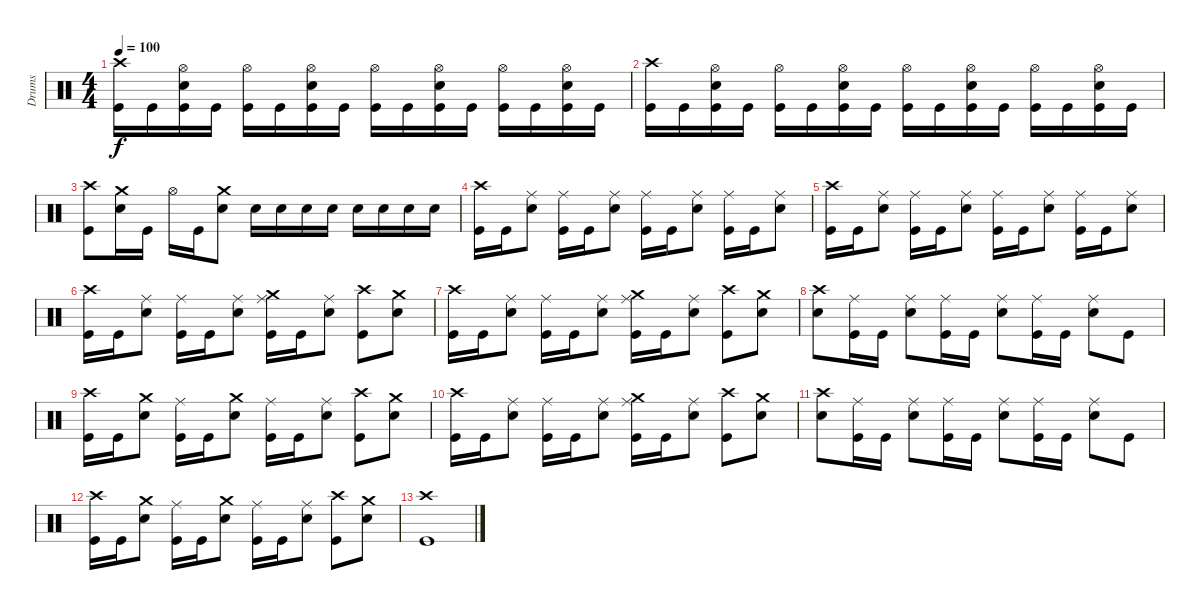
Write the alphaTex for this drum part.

\track ("Drums" "Drums") {instrument percussion}
\staff {score}
\articulation defaults
\ts (4 4)
\tempo 100
\clef neutral
\ks c
("Crash high (hit)" "Kick (hit)").16{dy f} "Kick (hit)".16 ("Hi-Hat (open)" "Electric Snare (hit)" "Kick (hit)").16 "Kick (hit)".16 ("Hi-Hat (open)" "Kick (hit)").16 "Kick (hit)".16 ("Hi-Hat (open)" "Electric Snare (hit)" "Kick (hit)").16 "Kick (hit)".16 ("Hi-Hat (open)" "Kick (hit)").16 "Kick (hit)".16 ("Hi-Hat (open)" "Electric Snare (hit)" "Kick (hit)").16 "Kick (hit)".16 ("Hi-Hat (open)" "Kick (hit)").16 "Kick (hit)".16 ("Hi-Hat (open)" "Electric Snare (hit)" "Kick (hit)").16 "Kick (hit)".16 |
("Crash high (hit)" "Kick (hit)").16 "Kick (hit)".16 ("Hi-Hat (open)" "Electric Snare (hit)" "Kick (hit)").16 "Kick (hit)".16 ("Hi-Hat (open)" "Kick (hit)").16 "Kick (hit)".16 ("Hi-Hat (open)" "Electric Snare (hit)" "Kick (hit)").16 "Kick (hit)".16 ("Hi-Hat (open)" "Kick (hit)").16 "Kick (hit)".16 ("Hi-Hat (open)" "Electric Snare (hit)" "Kick (hit)").16 "Kick (hit)".16 ("Hi-Hat (open)" "Kick (hit)").16 "Kick (hit)".16 ("Hi-Hat (open)" "Electric Snare (hit)" "Kick (hit)").16 "Kick (hit)".16 |
("Crash high (hit)" "Kick (hit)").8 ("Crash medium (hit)" "Electric Snare (hit)").16 "Kick (hit)".16 "Hi-Hat (open)".16 "Kick (hit)".16 ("Crash medium (hit)" "Electric Snare (hit)").8 "Electric Snare (hit)".16 "Electric Snare (hit)".16 "Electric Snare (hit)".16 "Electric Snare (hit)".16 "Electric Snare (hit)".16 "Electric Snare (hit)".16 "Electric Snare (hit)".16 "Electric Snare (hit)".16 |
("Crash high (hit)" "Kick (hit)").16 "Kick (hit)".16 ("Ride (middle)" "Electric Snare (hit)").8 ("Ride (middle)" "Kick (hit)").16 "Kick (hit)".16 ("Ride (middle)" "Electric Snare (hit)").8 ("Ride (middle)" "Kick (hit)").16 "Kick (hit)".16 ("Ride (middle)" "Electric Snare (hit)").8 ("Ride (middle)" "Kick (hit)").16 "Kick (hit)".16 ("Ride (middle)" "Electric Snare (hit)").8 |
("Crash high (hit)" "Kick (hit)").16 "Kick (hit)".16 ("Ride (middle)" "Electric Snare (hit)").8 ("Ride (middle)" "Kick (hit)").16 "Kick (hit)".16 ("Ride (middle)" "Electric Snare (hit)").8 ("Ride (middle)" "Kick (hit)").16 "Kick (hit)".16 ("Ride (middle)" "Electric Snare (hit)").8 ("Ride (middle)" "Kick (hit)").16 "Kick (hit)".16 ("Ride (middle)" "Electric Snare (hit)").8 |
("Crash high (hit)" "Kick (hit)").16 "Kick (hit)".16 ("Ride (middle)" "Electric Snare (hit)").8 ("Ride (middle)" "Kick (hit)").16 "Kick (hit)".16 ("Ride (middle)" "Electric Snare (hit)").8 ("Crash medium (hit)" "Ride (middle)" "Kick (hit)").16 "Kick (hit)".16 ("Ride (middle)" "Electric Snare (hit)").8 ("Crash high (hit)" "Kick (hit)").8 ("Crash medium (hit)" "Electric Snare (hit)").8 |
("Crash high (hit)" "Kick (hit)").16 "Kick (hit)".16 ("Ride (middle)" "Electric Snare (hit)").8 ("Ride (middle)" "Kick (hit)").16 "Kick (hit)".16 ("Ride (middle)" "Electric Snare (hit)").8 ("Crash medium (hit)" "Ride (middle)" "Kick (hit)").16 "Kick (hit)".16 ("Ride (middle)" "Electric Snare (hit)").8 ("Crash high (hit)" "Kick (hit)").8 ("Crash medium (hit)" "Electric Snare (hit)").8 |
("Crash high (hit)" "Electric Snare (hit)").8 ("Ride (middle)" "Kick (hit)").16 "Kick (hit)".16 ("Ride (middle)" "Electric Snare (hit)").8 ("Ride (middle)" "Kick (hit)").16 "Kick (hit)".16 ("Ride (middle)" "Electric Snare (hit)").8 ("Ride (middle)" "Kick (hit)").16 "Kick (hit)".16 ("Ride (middle)" "Electric Snare (hit)").8 "Kick (hit)".8 |
("Crash high (hit)" "Kick (hit)").16 "Kick (hit)".16 ("Crash medium (hit)" "Electric Snare (hit)").8 ("Ride (middle)" "Kick (hit)").16 "Kick (hit)".16 ("Crash medium (hit)" "Electric Snare (hit)").8 ("Ride (middle)" "Kick (hit)").16 "Kick (hit)".16 ("Ride (middle)" "Electric Snare (hit)").8 ("Crash high (hit)" "Kick (hit)").8 ("Crash medium (hit)" "Electric Snare (hit)").8 |
("Crash high (hit)" "Kick (hit)").16 "Kick (hit)".16 ("Ride (middle)" "Electric Snare (hit)").8 ("Ride (middle)" "Kick (hit)").16 "Kick (hit)".16 ("Ride (middle)" "Electric Snare (hit)").8 ("Crash medium (hit)" "Ride (middle)" "Kick (hit)").16 "Kick (hit)".16 ("Ride (middle)" "Electric Snare (hit)").8 ("Crash high (hit)" "Kick (hit)").8 ("Crash medium (hit)" "Electric Snare (hit)").8 |
("Crash high (hit)" "Electric Snare (hit)").8 ("Ride (middle)" "Kick (hit)").16 "Kick (hit)".16 ("Ride (middle)" "Electric Snare (hit)").8 ("Ride (middle)" "Kick (hit)").16 "Kick (hit)".16 ("Ride (middle)" "Electric Snare (hit)").8 ("Ride (middle)" "Kick (hit)").16 "Kick (hit)".16 ("Ride (middle)" "Electric Snare (hit)").8 "Kick (hit)".8 |
("Crash high (hit)" "Kick (hit)").16 "Kick (hit)".16 ("Crash medium (hit)" "Electric Snare (hit)").8 ("Ride (middle)" "Kick (hit)").16 "Kick (hit)".16 ("Crash medium (hit)" "Electric Snare (hit)").8 ("Ride (middle)" "Kick (hit)").16 "Kick (hit)".16 ("Ride (middle)" "Electric Snare (hit)").8 ("Crash high (hit)" "Kick (hit)").8 ("Crash medium (hit)" "Electric Snare (hit)").8 |
("Crash high (hit)" "Kick (hit)").1
